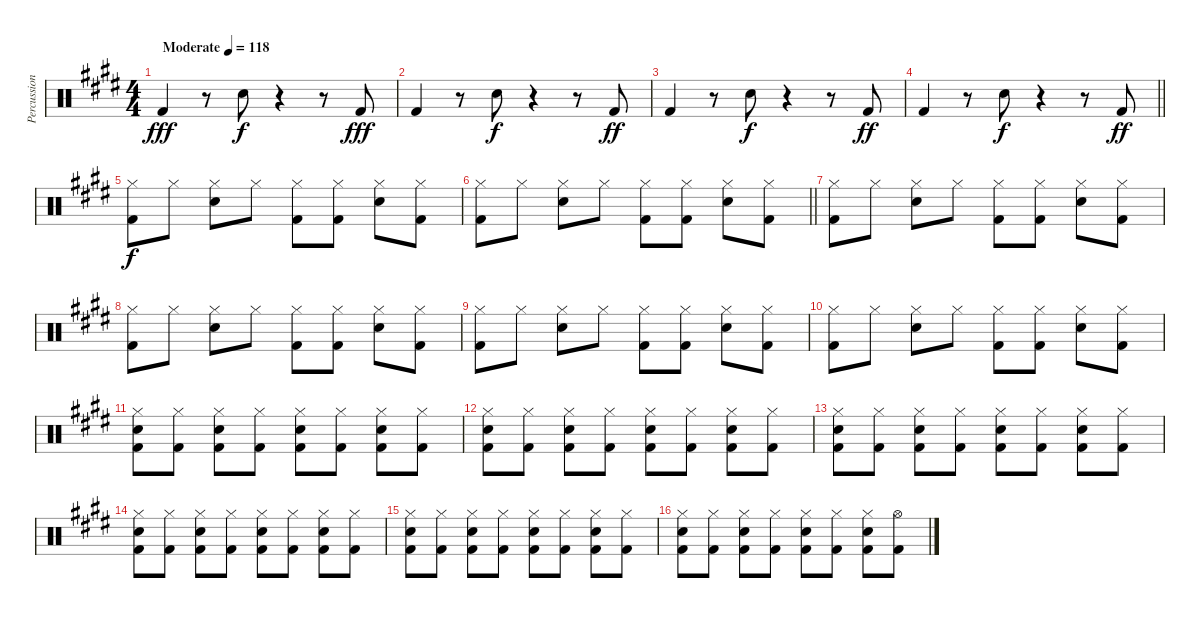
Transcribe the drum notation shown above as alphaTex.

\track ("Percussion" "Percussion") {instrument percussion}
\staff {score}
\articulation defaults
\ts (4 4)
\tempo (118 "Moderate")
\clef neutral
\ks e "Kick (hit) 2".4{dy fff}
r.8 "Snare (hit) 2".8{dy f} r.4 r.8 "Kick (hit) 2".8{dy fff} |
"Kick (hit) 2".4 r.8 "Snare (hit) 2".8{dy f} r.4 r.8 "Kick (hit) 2".8{dy ff} |
"Kick (hit) 2".4 r.8 "Snare (hit) 2".8{dy f} r.4 r.8 "Kick (hit) 2".8{dy ff} |
\barLineRight lightlight "Kick (hit) 2".4
r.8 "Snare (hit) 2".8{dy f} r.4 r.8 "Kick (hit) 2".8{dy ff} |
("Hi-Hat (closed)" "Kick (hit) 2").8{dy f} "Hi-Hat (closed)".8 ("Hi-Hat (closed)" "Snare (hit) 2").8 "Hi-Hat (closed)".8 ("Hi-Hat (closed)" "Kick (hit) 2").8 ("Hi-Hat (closed)" "Kick (hit) 2").8 ("Hi-Hat (closed)" "Snare (hit) 2").8 ("Hi-Hat (closed)" "Kick (hit) 2").8 |
\barLineRight lightlight
("Hi-Hat (closed)" "Kick (hit) 2").8 "Hi-Hat (closed)".8 ("Hi-Hat (closed)" "Snare (hit) 2").8 "Hi-Hat (closed)".8 ("Hi-Hat (closed)" "Kick (hit) 2").8 ("Hi-Hat (closed)" "Kick (hit) 2").8 ("Hi-Hat (closed)" "Snare (hit) 2").8 ("Hi-Hat (closed)" "Kick (hit) 2").8 |
("Hi-Hat (closed)" "Kick (hit) 2").8 "Hi-Hat (closed)".8 ("Hi-Hat (closed)" "Snare (hit) 2").8 "Hi-Hat (closed)".8 ("Hi-Hat (closed)" "Kick (hit) 2").8 ("Hi-Hat (closed)" "Kick (hit) 2").8 ("Hi-Hat (closed)" "Snare (hit) 2").8 ("Hi-Hat (closed)" "Kick (hit) 2").8 |
("Hi-Hat (closed)" "Kick (hit) 2").8 "Hi-Hat (closed)".8 ("Hi-Hat (closed)" "Snare (hit) 2").8 "Hi-Hat (closed)".8 ("Hi-Hat (closed)" "Kick (hit) 2").8 ("Hi-Hat (closed)" "Kick (hit) 2").8 ("Hi-Hat (closed)" "Snare (hit) 2").8 ("Hi-Hat (closed)" "Kick (hit) 2").8 |
("Hi-Hat (closed)" "Kick (hit) 2").8 "Hi-Hat (closed)".8 ("Hi-Hat (closed)" "Snare (hit) 2").8 "Hi-Hat (closed)".8 ("Hi-Hat (closed)" "Kick (hit) 2").8 ("Hi-Hat (closed)" "Kick (hit) 2").8 ("Hi-Hat (closed)" "Snare (hit) 2").8 ("Hi-Hat (closed)" "Kick (hit) 2").8 |
("Hi-Hat (closed)" "Kick (hit) 2").8 "Hi-Hat (closed)".8 ("Hi-Hat (closed)" "Snare (hit) 2").8 "Hi-Hat (closed)".8 ("Hi-Hat (closed)" "Kick (hit) 2").8 ("Hi-Hat (closed)" "Kick (hit) 2").8 ("Hi-Hat (closed)" "Snare (hit) 2").8 ("Hi-Hat (closed)" "Kick (hit) 2").8 |
("Hi-Hat (closed)" "Snare (hit) 2" "Kick (hit) 2").8 ("Hi-Hat (closed)" "Kick (hit) 2").8 ("Hi-Hat (closed)" "Snare (hit) 2" "Kick (hit) 2").8 ("Hi-Hat (closed)" "Kick (hit) 2").8 ("Hi-Hat (closed)" "Snare (hit) 2" "Kick (hit) 2").8 ("Hi-Hat (closed)" "Kick (hit) 2").8 ("Hi-Hat (closed)" "Snare (hit) 2" "Kick (hit) 2").8 ("Hi-Hat (closed)" "Kick (hit) 2").8 |
("Hi-Hat (closed)" "Snare (hit) 2" "Kick (hit) 2").8 ("Hi-Hat (closed)" "Kick (hit) 2").8 ("Hi-Hat (closed)" "Snare (hit) 2" "Kick (hit) 2").8 ("Hi-Hat (closed)" "Kick (hit) 2").8 ("Hi-Hat (closed)" "Snare (hit) 2" "Kick (hit) 2").8 ("Hi-Hat (closed)" "Kick (hit) 2").8 ("Hi-Hat (closed)" "Snare (hit) 2" "Kick (hit) 2").8 ("Hi-Hat (closed)" "Kick (hit) 2").8 |
("Hi-Hat (closed)" "Snare (hit) 2" "Kick (hit) 2").8 ("Hi-Hat (closed)" "Kick (hit) 2").8 ("Hi-Hat (closed)" "Snare (hit) 2" "Kick (hit) 2").8 ("Hi-Hat (closed)" "Kick (hit) 2").8 ("Hi-Hat (closed)" "Snare (hit) 2" "Kick (hit) 2").8 ("Hi-Hat (closed)" "Kick (hit) 2").8 ("Hi-Hat (closed)" "Snare (hit) 2" "Kick (hit) 2").8 ("Hi-Hat (closed)" "Kick (hit) 2").8 |
("Hi-Hat (closed)" "Snare (hit) 2" "Kick (hit) 2").8 ("Hi-Hat (closed)" "Kick (hit) 2").8 ("Hi-Hat (closed)" "Snare (hit) 2" "Kick (hit) 2").8 ("Hi-Hat (closed)" "Kick (hit) 2").8 ("Hi-Hat (closed)" "Snare (hit) 2" "Kick (hit) 2").8 ("Hi-Hat (closed)" "Kick (hit) 2").8 ("Hi-Hat (closed)" "Snare (hit) 2" "Kick (hit) 2").8 ("Hi-Hat (closed)" "Kick (hit) 2").8 |
("Hi-Hat (closed)" "Snare (hit) 2" "Kick (hit) 2").8 ("Hi-Hat (closed)" "Kick (hit) 2").8 ("Hi-Hat (closed)" "Snare (hit) 2" "Kick (hit) 2").8 ("Hi-Hat (closed)" "Kick (hit) 2").8 ("Hi-Hat (closed)" "Snare (hit) 2" "Kick (hit) 2").8 ("Hi-Hat (closed)" "Kick (hit) 2").8 ("Hi-Hat (closed)" "Snare (hit) 2" "Kick (hit) 2").8 ("Hi-Hat (closed)" "Kick (hit) 2").8 |
("Hi-Hat (closed)" "Snare (hit) 2" "Kick (hit) 2").8 ("Hi-Hat (closed)" "Kick (hit) 2").8 ("Hi-Hat (closed)" "Snare (hit) 2" "Kick (hit) 2").8 ("Hi-Hat (closed)" "Kick (hit) 2").8 ("Hi-Hat (closed)" "Snare (hit) 2" "Kick (hit) 2").8 ("Hi-Hat (closed)" "Kick (hit) 2").8 ("Hi-Hat (closed)" "Snare (hit) 2" "Kick (hit) 2").8 ("Hi-Hat (open)" "Kick (hit) 2").8
